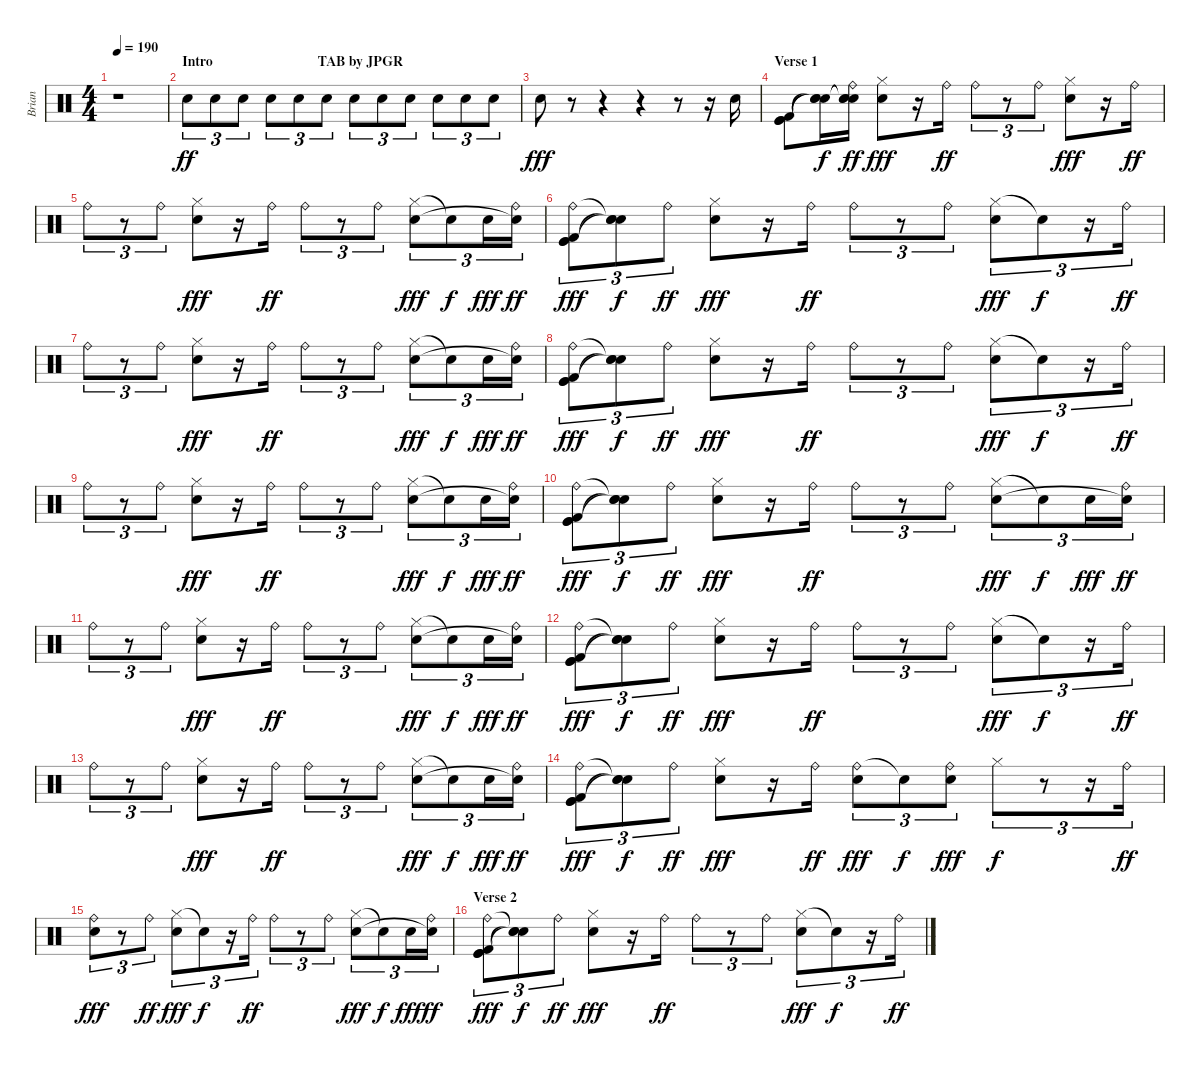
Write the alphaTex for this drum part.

\track ("Brian" "Brian") {instrument percussion}
\staff {score}
\articulation defaults
\ts (4 4)
\tempo 190
\clef neutral
\ks c
r.1{dy ff} |
\section ("" "Intro                              TAB by JPGR")
"Electric Snare (hit)".8{tu (3 2)} "Electric Snare (hit)".8{tu (3 2)} "Electric Snare (hit)".8{tu (3 2)} "Electric Snare (hit)".8{tu (3 2)} "Electric Snare (hit)".8{tu (3 2)} "Electric Snare (hit)".8{tu (3 2)} "Electric Snare (hit)".8{tu (3 2)} "Electric Snare (hit)".8{tu (3 2)} "Electric Snare (hit)".8{tu (3 2)} "Electric Snare (hit)".8{tu (3 2)} "Electric Snare (hit)".8{tu (3 2)} "Electric Snare (hit)".8{tu (3 2)} |
"Electric Snare (hit)".8{dy fff} r.8 r.4 r.4 r.8 r.16 "Electric Snare (hit)".16 |
\section ("" "Verse 1")
("Kick (hit)" "Kick (hit) 2" "Kick (hit)").8 ("Snare (hit)"{t} "Snare (hit)"{t} "Snare (hit)"{t}).16{dy f} ("Ride (bell)" "Snare (hit)"{t} "Snare (hit)"{t} "Snare (hit)").16{dy ff} ("Hi-Hat (closed)" "Electric Snare (hit)").8{dy fff} r.16 "Ride (bell)".16{dy ff} "Ride (bell)".8{tu (3 2)} r.8{tu (3 2)} "Ride (bell)".8{tu (3 2)} ("Hi-Hat (closed)" "Electric Snare (hit)").8{dy fff} r.16 "Ride (bell)".16{dy ff} |
"Ride (bell)".8{tu (3 2)} r.8{tu (3 2)} "Ride (bell)".8{tu (3 2)} ("Hi-Hat (closed)" "Electric Snare (hit)").8{dy fff} r.16 "Ride (bell)".16{dy ff} "Ride (bell)".8{tu (3 2)} r.8{tu (3 2)} "Ride (bell)".8{tu (3 2)} ("Hi-Hat (closed)" "Electric Snare (hit)").8{tu (3 2) dy fff} "Snare (hit)"{t}.8{tu (3 2) dy f} "Electric Snare (hit)".16{tu (3 2) dy fff} ("Ride (bell)" "Snare (hit) 2"{t}).16{tu (3 2) dy ff} |
("Ride (bell)" "Kick (hit)" "Kick (hit) 2" "Kick (hit)").8{tu (3 2) dy fff} ("Snare (hit)"{t} "Snare (hit)"{t} "Snare (hit)"{t}).8{tu (3 2) dy f} "Ride (bell)".8{tu (3 2) dy ff} ("Hi-Hat (closed)" "Electric Snare (hit)").8{dy fff} r.16 "Ride (bell)".16{dy ff} "Ride (bell)".8{tu (3 2)} r.8{tu (3 2)} "Ride (bell)".8{tu (3 2)} ("Hi-Hat (closed)" "Electric Snare (hit)").8{tu (3 2) dy fff} "Snare (hit)"{t}.8{tu (3 2) dy f} r.16{tu (3 2)} "Ride (bell)".16{tu (3 2) dy ff} |
"Ride (bell)".8{tu (3 2)} r.8{tu (3 2)} "Ride (bell)".8{tu (3 2)} ("Hi-Hat (closed)" "Electric Snare (hit)").8{dy fff} r.16 "Ride (bell)".16{dy ff} "Ride (bell)".8{tu (3 2)} r.8{tu (3 2)} "Ride (bell)".8{tu (3 2)} ("Hi-Hat (closed)" "Electric Snare (hit)").8{tu (3 2) dy fff} "Snare (hit)"{t}.8{tu (3 2) dy f} "Electric Snare (hit)".16{tu (3 2) dy fff} ("Ride (bell)" "Snare (hit) 2"{t}).16{tu (3 2) dy ff} |
("Ride (bell)" "Kick (hit)" "Kick (hit) 2" "Kick (hit)").8{tu (3 2) dy fff} ("Snare (hit)"{t} "Snare (hit)"{t} "Snare (hit)"{t}).8{tu (3 2) dy f} "Ride (bell)".8{tu (3 2) dy ff} ("Hi-Hat (closed)" "Electric Snare (hit)").8{dy fff} r.16 "Ride (bell)".16{dy ff} "Ride (bell)".8{tu (3 2)} r.8{tu (3 2)} "Ride (bell)".8{tu (3 2)} ("Hi-Hat (closed)" "Electric Snare (hit)").8{tu (3 2) dy fff} "Snare (hit)"{t}.8{tu (3 2) dy f} r.16{tu (3 2)} "Ride (bell)".16{tu (3 2) dy ff} |
"Ride (bell)".8{tu (3 2)} r.8{tu (3 2)} "Ride (bell)".8{tu (3 2)} ("Hi-Hat (closed)" "Electric Snare (hit)").8{dy fff} r.16 "Ride (bell)".16{dy ff} "Ride (bell)".8{tu (3 2)} r.8{tu (3 2)} "Ride (bell)".8{tu (3 2)} ("Hi-Hat (closed)" "Electric Snare (hit)").8{tu (3 2) dy fff} "Snare (hit)"{t}.8{tu (3 2) dy f} "Electric Snare (hit)".16{tu (3 2) dy fff} ("Ride (bell)" "Snare (hit) 2"{t}).16{tu (3 2) dy ff} |
("Ride (bell)" "Kick (hit)" "Kick (hit) 2" "Kick (hit)").8{tu (3 2) dy fff} ("Snare (hit)"{t} "Snare (hit)"{t} "Snare (hit)"{t}).8{tu (3 2) dy f} "Ride (bell)".8{tu (3 2) dy ff} ("Hi-Hat (closed)" "Electric Snare (hit)").8{dy fff} r.16 "Ride (bell)".16{dy ff} "Ride (bell)".8{tu (3 2)} r.8{tu (3 2)} "Ride (bell)".8{tu (3 2)} ("Hi-Hat (closed)" "Electric Snare (hit)").8{tu (3 2) dy fff} "Snare (hit)"{t}.8{tu (3 2) dy f} "Electric Snare (hit)".16{tu (3 2) dy fff} ("Ride (bell)" "Snare (hit)"{t}).16{tu (3 2) dy ff} |
"Ride (bell)".8{tu (3 2)} r.8{tu (3 2)} "Ride (bell)".8{tu (3 2)} ("Hi-Hat (closed)" "Electric Snare (hit)").8{dy fff} r.16 "Ride (bell)".16{dy ff} "Ride (bell)".8{tu (3 2)} r.8{tu (3 2)} "Ride (bell)".8{tu (3 2)} ("Hi-Hat (closed)" "Electric Snare (hit)").8{tu (3 2) dy fff} "Snare (hit)"{t}.8{tu (3 2) dy f} "Electric Snare (hit)".16{tu (3 2) dy fff} ("Ride (bell)" "Snare (hit) 2"{t}).16{tu (3 2) dy ff} |
("Ride (bell)" "Kick (hit)" "Kick (hit) 2" "Kick (hit)").8{tu (3 2) dy fff} ("Snare (hit)"{t} "Snare (hit)"{t} "Snare (hit)"{t}).8{tu (3 2) dy f} "Ride (bell)".8{tu (3 2) dy ff} ("Hi-Hat (closed)" "Electric Snare (hit)").8{dy fff} r.16 "Ride (bell)".16{dy ff} "Ride (bell)".8{tu (3 2)} r.8{tu (3 2)} "Ride (bell)".8{tu (3 2)} ("Hi-Hat (closed)" "Electric Snare (hit)").8{tu (3 2) dy fff} "Snare (hit)"{t}.8{tu (3 2) dy f} r.16{tu (3 2)} "Ride (bell)".16{tu (3 2) dy ff} |
"Ride (bell)".8{tu (3 2)} r.8{tu (3 2)} "Ride (bell)".8{tu (3 2)} ("Hi-Hat (closed)" "Electric Snare (hit)").8{dy fff} r.16 "Ride (bell)".16{dy ff} "Ride (bell)".8{tu (3 2)} r.8{tu (3 2)} "Ride (bell)".8{tu (3 2)} ("Hi-Hat (closed)" "Electric Snare (hit)").8{tu (3 2) dy fff} "Snare (hit)"{t}.8{tu (3 2) dy f} "Electric Snare (hit)".16{tu (3 2) dy fff} ("Ride (bell)" "Snare (hit) 2"{t}).16{tu (3 2) dy ff} |
("Ride (bell)" "Kick (hit)" "Kick (hit) 2" "Kick (hit)").8{tu (3 2) dy fff} ("Snare (hit)"{t} "Snare (hit)"{t} "Snare (hit)"{t}).8{tu (3 2) dy f} "Ride (bell)".8{tu (3 2) dy ff} ("Hi-Hat (closed)" "Electric Snare (hit)").8{dy fff} r.16 "Ride (bell)".16{dy ff} ("Ride (bell)" "Electric Snare (hit)").8{tu (3 2) dy fff} "Snare (hit)"{t}.8{tu (3 2) dy f} ("Ride (bell)" "Electric Snare (hit)").8{tu (3 2) dy fff} "Hi-Hat (closed)".8{tu (3 2) dy f} r.8{tu (3 2)} r.16{tu (3 2)} "Ride (bell)".16{tu (3 2) dy ff} |
("Ride (bell)" "Electric Snare (hit)").8{tu (3 2) dy fff} r.8{tu (3 2)} "Ride (bell)".8{tu (3 2) dy ff} ("Hi-Hat (closed)" "Electric Snare (hit)").8{tu (3 2) dy fff} "Snare (hit)"{t}.8{tu (3 2) dy f} r.16{tu (3 2)} "Ride (bell)".16{tu (3 2) dy ff} "Ride (bell)".8{tu (3 2)} r.8{tu (3 2)} "Ride (bell)".8{tu (3 2)} ("Hi-Hat (closed)" "Electric Snare (hit)").8{tu (3 2) dy fff} "Snare (hit)"{t}.8{tu (3 2) dy f} "Electric Snare (hit)".16{tu (3 2) dy fff} ("Ride (bell)" "Snare (hit) 2"{t}).16{tu (3 2) dy ff} |
\section ("" "Verse 2")
("Ride (bell)" "Kick (hit)" "Kick (hit) 2" "Kick (hit)").8{tu (3 2) dy fff} ("Snare (hit)"{t} "Snare (hit)"{t} "Snare (hit)"{t}).8{tu (3 2) dy f} "Ride (bell)".8{tu (3 2) dy ff} ("Hi-Hat (closed)" "Electric Snare (hit)").8{dy fff} r.16 "Ride (bell)".16{dy ff} "Ride (bell)".8{tu (3 2)} r.8{tu (3 2)} "Ride (bell)".8{tu (3 2)} ("Hi-Hat (closed)" "Electric Snare (hit)").8{tu (3 2) dy fff} "Snare (hit)"{t}.8{tu (3 2) dy f} r.16{tu (3 2)} "Ride (bell)".16{tu (3 2) dy ff}
